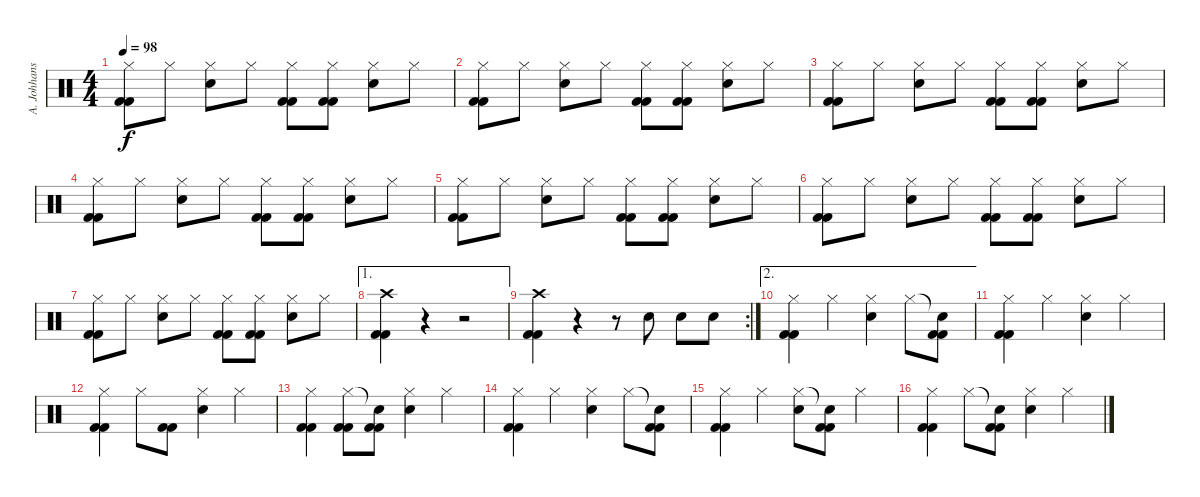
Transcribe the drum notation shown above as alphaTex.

\track ("A. Johhanson" "A. Johhans") {instrument percussion}
\staff {score}
\articulation defaults
\ts (4 4)
\tempo 98
\clef neutral
\ks c
("Hi-Hat (closed)" "Kick (hit) 2" "Kick (hit) 2").8{dy f} "Hi-Hat (closed)".8 ("Hi-Hat (closed)" "Snare (hit) 2").8 "Hi-Hat (closed)".8 ("Hi-Hat (closed)" "Kick (hit) 2" "Kick (hit) 2").8 ("Hi-Hat (closed)" "Kick (hit) 2" "Kick (hit) 2").8 ("Hi-Hat (closed)" "Snare (hit) 2").8 "Hi-Hat (closed)".8 |
("Hi-Hat (closed)" "Kick (hit) 2" "Kick (hit) 2").8 "Hi-Hat (closed)".8 ("Hi-Hat (closed)" "Snare (hit) 2").8 "Hi-Hat (closed)".8 ("Hi-Hat (closed)" "Kick (hit) 2" "Kick (hit) 2").8 ("Hi-Hat (closed)" "Kick (hit) 2" "Kick (hit) 2").8 ("Hi-Hat (closed)" "Snare (hit) 2").8 "Hi-Hat (closed)".8 |
("Hi-Hat (closed)" "Kick (hit) 2" "Kick (hit) 2").8 "Hi-Hat (closed)".8 ("Hi-Hat (closed)" "Snare (hit) 2").8 "Hi-Hat (closed)".8 ("Hi-Hat (closed)" "Kick (hit) 2" "Kick (hit) 2").8 ("Hi-Hat (closed)" "Kick (hit) 2" "Kick (hit) 2").8 ("Hi-Hat (closed)" "Snare (hit) 2").8 "Hi-Hat (closed)".8 |
("Hi-Hat (closed)" "Kick (hit) 2" "Kick (hit) 2").8 "Hi-Hat (closed)".8 ("Hi-Hat (closed)" "Snare (hit) 2").8 "Hi-Hat (closed)".8 ("Hi-Hat (closed)" "Kick (hit) 2" "Kick (hit) 2").8 ("Hi-Hat (closed)" "Kick (hit) 2" "Kick (hit) 2").8 ("Hi-Hat (closed)" "Snare (hit) 2").8 "Hi-Hat (closed)".8 |
("Hi-Hat (closed)" "Kick (hit) 2" "Kick (hit) 2").8 "Hi-Hat (closed)".8 ("Hi-Hat (closed)" "Snare (hit) 2").8 "Hi-Hat (closed)".8 ("Hi-Hat (closed)" "Kick (hit) 2" "Kick (hit) 2").8 ("Hi-Hat (closed)" "Kick (hit) 2" "Kick (hit) 2").8 ("Hi-Hat (closed)" "Snare (hit) 2").8 "Hi-Hat (closed)".8 |
("Hi-Hat (closed)" "Kick (hit) 2" "Kick (hit) 2").8 "Hi-Hat (closed)".8 ("Hi-Hat (closed)" "Snare (hit) 2").8 "Hi-Hat (closed)".8 ("Hi-Hat (closed)" "Kick (hit) 2" "Kick (hit) 2").8 ("Hi-Hat (closed)" "Kick (hit) 2" "Kick (hit) 2").8 ("Hi-Hat (closed)" "Snare (hit) 2").8 "Hi-Hat (closed)".8 |
("Hi-Hat (closed)" "Kick (hit) 2" "Kick (hit) 2").8 "Hi-Hat (closed)".8 ("Hi-Hat (closed)" "Snare (hit) 2").8 "Hi-Hat (closed)".8 ("Hi-Hat (closed)" "Kick (hit) 2" "Kick (hit) 2").8 ("Hi-Hat (closed)" "Kick (hit) 2" "Kick (hit) 2").8 ("Hi-Hat (closed)" "Snare (hit) 2").8 "Hi-Hat (closed)".8 |
\ae 1
("Crash high (hit)" "Kick (hit) 2" "Kick (hit) 2").4 r.4 r.2 |
\rc 2
("Crash high (hit)" "Kick (hit) 2" "Kick (hit) 2").4 r.4 r.8 "Snare (hit) 2".8 "Snare (hit) 2".8 "Snare (hit) 2".8 |
\ae 2
("Hi-Hat (closed)" "Kick (hit) 2" "Kick (hit) 2").4 "Hi-Hat (closed)".4 ("Hi-Hat (closed)" "Snare (hit) 2").4 "Hi-Hat (closed)".8 ("Snare (hit)"{t} "Kick (hit) 2" "Kick (hit) 2").8 |
("Hi-Hat (closed)" "Kick (hit) 2" "Kick (hit) 2").4 "Hi-Hat (closed)".4 ("Hi-Hat (closed)" "Snare (hit) 2").4 "Hi-Hat (closed)".4 |
("Hi-Hat (closed)" "Kick (hit) 2" "Kick (hit) 2").4 "Hi-Hat (closed)".8 ("Kick (hit) 2" "Kick (hit) 2").8 ("Hi-Hat (closed)" "Snare (hit) 2").4 "Hi-Hat (closed)".4 |
("Hi-Hat (closed)" "Kick (hit) 2" "Kick (hit) 2").4 ("Hi-Hat (closed)" "Kick (hit) 2" "Kick (hit) 2").8 ("Snare (hit)"{t} "Kick (hit) 2" "Kick (hit) 2").8 ("Hi-Hat (closed)" "Snare (hit) 2").4 "Hi-Hat (closed)".4 |
("Hi-Hat (closed)" "Kick (hit) 2" "Kick (hit) 2").4 "Hi-Hat (closed)".4 ("Hi-Hat (closed)" "Snare (hit) 2").4 "Hi-Hat (closed)".8 ("Snare (hit)"{t} "Kick (hit) 2" "Kick (hit) 2").8 |
("Hi-Hat (closed)" "Kick (hit) 2" "Kick (hit) 2").4 "Hi-Hat (closed)".4 ("Hi-Hat (closed)" "Snare (hit) 2").8 ("Snare (hit)"{t} "Kick (hit) 2" "Kick (hit) 2").8 "Hi-Hat (closed)".4 |
("Hi-Hat (closed)" "Kick (hit) 2" "Kick (hit) 2").4 "Hi-Hat (closed)".8 ("Snare (hit)"{t} "Kick (hit) 2" "Kick (hit) 2").8 ("Hi-Hat (closed)" "Snare (hit) 2").4 "Hi-Hat (closed)".4
